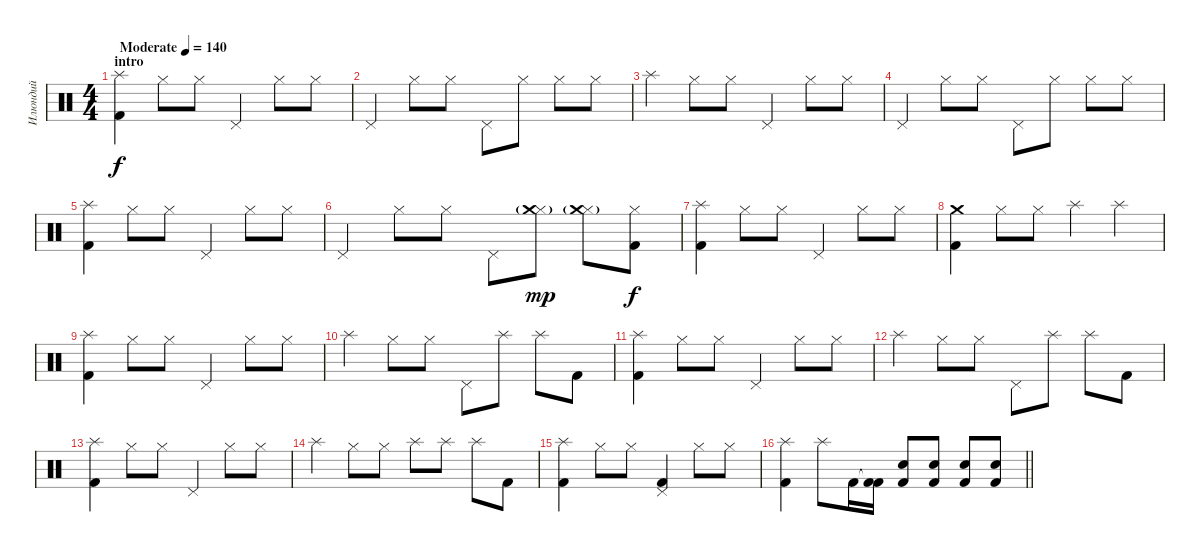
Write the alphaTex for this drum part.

\track ("Илюндий" "Илюндий") {instrument percussion}
\staff {score}
\articulation defaults
\ts (4 4)
\section ("" "intro")
\tempo (140 "Moderate")
\clef neutral
\ks c
("Splash (hit)" "Kick (hit) 2").4{dy f} "Hi-Hat (closed)".8 "Hi-Hat (closed)".8 "Pedal Hi-Hat (hit)".4 "Hi-Hat (closed)".8 "Hi-Hat (closed)".8 |
"Pedal Hi-Hat (hit)".4 "Hi-Hat (closed)".8 "Hi-Hat (closed)".8 "Pedal Hi-Hat (hit)".8 "Hi-Hat (closed)".8 "Hi-Hat (closed)".8 "Hi-Hat (closed)".8 |
"Splash (hit)".4 "Hi-Hat (closed)".8 "Hi-Hat (closed)".8 "Pedal Hi-Hat (hit)".4 "Hi-Hat (closed)".8 "Hi-Hat (closed)".8 |
"Pedal Hi-Hat (hit)".4 "Hi-Hat (closed)".8 "Hi-Hat (closed)".8 "Pedal Hi-Hat (hit)".8 "Hi-Hat (closed)".8 "Hi-Hat (closed)".8 "Hi-Hat (closed)".8 |
("Splash (hit)" "Kick (hit) 2").4 "Hi-Hat (closed)".8 "Hi-Hat (closed)".8 "Pedal Hi-Hat (hit)".4 "Hi-Hat (closed)".8 "Hi-Hat (closed)".8 |
"Pedal Hi-Hat (hit)".4 "Hi-Hat (closed)".8 "Hi-Hat (closed)".8 "Pedal Hi-Hat (hit)".8 ("Hi-Hat (closed)" "Crash medium (hit)"{g}).8{dy mp} ("Hi-Hat (closed)" "Crash medium (hit)"{g}).8 ("Hi-Hat (closed)" "Kick (hit) 2").8{dy f} |
("Splash (hit)" "Kick (hit) 2").4 "Hi-Hat (closed)".8 "Hi-Hat (closed)".8 "Pedal Hi-Hat (hit)".4 "Hi-Hat (closed)".8 "Hi-Hat (closed)".8 |
("Crash medium (hit)" "Kick (hit) 2").4 "Hi-Hat (closed)".8 "Hi-Hat (closed)".8 "Splash (hit)".4 "Splash (hit)".4 |
("Splash (hit)" "Kick (hit) 2").4 "Hi-Hat (closed)".8 "Hi-Hat (closed)".8 "Pedal Hi-Hat (hit)".4 "Hi-Hat (closed)".8 "Hi-Hat (closed)".8 |
"Splash (hit)".4 "Hi-Hat (closed)".8 "Hi-Hat (closed)".8 "Pedal Hi-Hat (hit)".8 "Splash (hit)".8 "Splash (hit)".8 "Kick (hit) 2".8 |
("Splash (hit)" "Kick (hit) 2").4 "Hi-Hat (closed)".8 "Hi-Hat (closed)".8 "Pedal Hi-Hat (hit)".4 "Hi-Hat (closed)".8 "Hi-Hat (closed)".8 |
"Splash (hit)".4 "Hi-Hat (closed)".8 "Hi-Hat (closed)".8 "Pedal Hi-Hat (hit)".8 "Splash (hit)".8 "Splash (hit)".8 "Kick (hit) 2".8 |
("Splash (hit)" "Kick (hit) 2").4 "Hi-Hat (closed)".8 "Hi-Hat (closed)".8 "Pedal Hi-Hat (hit)".4 "Hi-Hat (closed)".8 "Hi-Hat (closed)".8 |
"Splash (hit)".4 "Hi-Hat (closed)".8 "Hi-Hat (closed)".8 "Splash (hit)".8 "Splash (hit)".8 "Splash (hit)".8 "Kick (hit) 2".8 |
("Splash (hit)" "Kick (hit) 2").4 "Hi-Hat (closed)".8 "Hi-Hat (closed)".8 ("Pedal Hi-Hat (hit)" "Kick (hit) 2").4 "Hi-Hat (closed)".8 "Hi-Hat (closed)".8 |
\barLineRight lightlight
("Splash (hit)" "Kick (hit) 2").4 "Splash (hit)".8 "Kick (hit) 2".16 ("Kick (hit) 2"{t} "Kick (hit) 2").16 ("Snare (hit) 2" "Kick (hit) 2").8 ("Snare (hit) 2" "Kick (hit) 2").8 ("Snare (hit) 2" "Kick (hit) 2").8 ("Snare (hit) 2" "Kick (hit) 2").8
